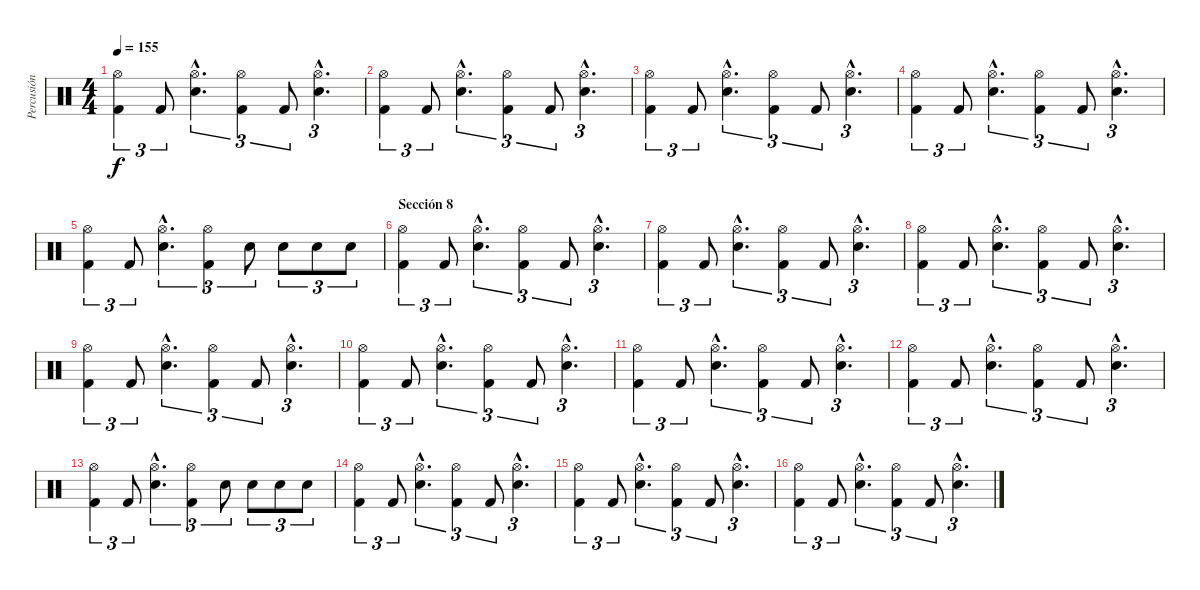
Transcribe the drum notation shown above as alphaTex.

\track ("Percusión" "Percusión") {instrument percussion}
\staff {score}
\articulation defaults
\ts (4 4)
\tempo 155
\clef neutral
\ks c
("Hi-Hat (open)" "Kick (hit) 2").4{tu (3 2) dy f} "Kick (hit) 2".8{tu (3 2)} ("Hi-Hat (open)"{hac} "Electric Snare (hit)"{hac}).4{d tu (3 2)} ("Hi-Hat (open)" "Kick (hit) 2").4{tu (3 2)} "Kick (hit) 2".8{tu (3 2)} ("Hi-Hat (open)"{hac} "Electric Snare (hit)"{hac}).4{d tu (3 2)} |
("Hi-Hat (open)" "Kick (hit) 2").4{tu (3 2)} "Kick (hit) 2".8{tu (3 2)} ("Hi-Hat (open)"{hac} "Electric Snare (hit)"{hac}).4{d tu (3 2)} ("Hi-Hat (open)" "Kick (hit) 2").4{tu (3 2)} "Kick (hit) 2".8{tu (3 2)} ("Hi-Hat (open)"{hac} "Electric Snare (hit)"{hac}).4{d tu (3 2)} |
("Hi-Hat (open)" "Kick (hit) 2").4{tu (3 2)} "Kick (hit) 2".8{tu (3 2)} ("Hi-Hat (open)"{hac} "Electric Snare (hit)"{hac}).4{d tu (3 2)} ("Hi-Hat (open)" "Kick (hit) 2").4{tu (3 2)} "Kick (hit) 2".8{tu (3 2)} ("Hi-Hat (open)"{hac} "Electric Snare (hit)"{hac}).4{d tu (3 2)} |
("Hi-Hat (open)" "Kick (hit) 2").4{tu (3 2)} "Kick (hit) 2".8{tu (3 2)} ("Hi-Hat (open)"{hac} "Electric Snare (hit)"{hac}).4{d tu (3 2)} ("Hi-Hat (open)" "Kick (hit) 2").4{tu (3 2)} "Kick (hit) 2".8{tu (3 2)} ("Hi-Hat (open)"{hac} "Electric Snare (hit)"{hac}).4{d tu (3 2)} |
("Hi-Hat (open)" "Kick (hit) 2").4{tu (3 2)} "Kick (hit) 2".8{tu (3 2)} ("Hi-Hat (open)"{hac} "Electric Snare (hit)"{hac}).4{d tu (3 2)} ("Hi-Hat (open)" "Kick (hit) 2").4{tu (3 2)} "Electric Snare (hit)".8{tu (3 2)} "Electric Snare (hit)".8{tu (3 2)} "Electric Snare (hit)".8{tu (3 2)} "Electric Snare (hit)".8{tu (3 2)} |
\section ("" "Sección 8")
("Hi-Hat (open)" "Kick (hit) 2").4{tu (3 2)} "Kick (hit) 2".8{tu (3 2)} ("Hi-Hat (open)"{hac} "Electric Snare (hit)"{hac}).4{d tu (3 2)} ("Hi-Hat (open)" "Kick (hit) 2").4{tu (3 2)} "Kick (hit) 2".8{tu (3 2)} ("Hi-Hat (open)"{hac} "Electric Snare (hit)"{hac}).4{d tu (3 2)} |
("Hi-Hat (open)" "Kick (hit) 2").4{tu (3 2)} "Kick (hit) 2".8{tu (3 2)} ("Hi-Hat (open)"{hac} "Electric Snare (hit)"{hac}).4{d tu (3 2)} ("Hi-Hat (open)" "Kick (hit) 2").4{tu (3 2)} "Kick (hit) 2".8{tu (3 2)} ("Hi-Hat (open)"{hac} "Electric Snare (hit)"{hac}).4{d tu (3 2)} |
("Hi-Hat (open)" "Kick (hit) 2").4{tu (3 2)} "Kick (hit) 2".8{tu (3 2)} ("Hi-Hat (open)"{hac} "Electric Snare (hit)"{hac}).4{d tu (3 2)} ("Hi-Hat (open)" "Kick (hit) 2").4{tu (3 2)} "Kick (hit) 2".8{tu (3 2)} ("Hi-Hat (open)"{hac} "Electric Snare (hit)"{hac}).4{d tu (3 2)} |
("Hi-Hat (open)" "Kick (hit) 2").4{tu (3 2)} "Kick (hit) 2".8{tu (3 2)} ("Hi-Hat (open)"{hac} "Electric Snare (hit)"{hac}).4{d tu (3 2)} ("Hi-Hat (open)" "Kick (hit) 2").4{tu (3 2)} "Kick (hit) 2".8{tu (3 2)} ("Hi-Hat (open)"{hac} "Electric Snare (hit)"{hac}).4{d tu (3 2)} |
("Hi-Hat (open)" "Kick (hit) 2").4{tu (3 2)} "Kick (hit) 2".8{tu (3 2)} ("Hi-Hat (open)"{hac} "Electric Snare (hit)"{hac}).4{d tu (3 2)} ("Hi-Hat (open)" "Kick (hit) 2").4{tu (3 2)} "Kick (hit) 2".8{tu (3 2)} ("Hi-Hat (open)"{hac} "Electric Snare (hit)"{hac}).4{d tu (3 2)} |
("Hi-Hat (open)" "Kick (hit) 2").4{tu (3 2)} "Kick (hit) 2".8{tu (3 2)} ("Hi-Hat (open)"{hac} "Electric Snare (hit)"{hac}).4{d tu (3 2)} ("Hi-Hat (open)" "Kick (hit) 2").4{tu (3 2)} "Kick (hit) 2".8{tu (3 2)} ("Hi-Hat (open)"{hac} "Electric Snare (hit)"{hac}).4{d tu (3 2)} |
("Hi-Hat (open)" "Kick (hit) 2").4{tu (3 2)} "Kick (hit) 2".8{tu (3 2)} ("Hi-Hat (open)"{hac} "Electric Snare (hit)"{hac}).4{d tu (3 2)} ("Hi-Hat (open)" "Kick (hit) 2").4{tu (3 2)} "Kick (hit) 2".8{tu (3 2)} ("Hi-Hat (open)"{hac} "Electric Snare (hit)"{hac}).4{d tu (3 2)} |
("Hi-Hat (open)" "Kick (hit) 2").4{tu (3 2)} "Kick (hit) 2".8{tu (3 2)} ("Hi-Hat (open)"{hac} "Electric Snare (hit)"{hac}).4{d tu (3 2)} ("Hi-Hat (open)" "Kick (hit) 2").4{tu (3 2)} "Electric Snare (hit)".8{tu (3 2)} "Electric Snare (hit)".8{tu (3 2)} "Electric Snare (hit)".8{tu (3 2)} "Electric Snare (hit)".8{tu (3 2)} |
("Hi-Hat (open)" "Kick (hit) 2").4{tu (3 2)} "Kick (hit) 2".8{tu (3 2)} ("Hi-Hat (open)"{hac} "Electric Snare (hit)"{hac}).4{d tu (3 2)} ("Hi-Hat (open)" "Kick (hit) 2").4{tu (3 2)} "Kick (hit) 2".8{tu (3 2)} ("Hi-Hat (open)"{hac} "Electric Snare (hit)"{hac}).4{d tu (3 2)} |
("Hi-Hat (open)" "Kick (hit) 2").4{tu (3 2)} "Kick (hit) 2".8{tu (3 2)} ("Hi-Hat (open)"{hac} "Electric Snare (hit)"{hac}).4{d tu (3 2)} ("Hi-Hat (open)" "Kick (hit) 2").4{tu (3 2)} "Kick (hit) 2".8{tu (3 2)} ("Hi-Hat (open)"{hac} "Electric Snare (hit)"{hac}).4{d tu (3 2)} |
("Hi-Hat (open)" "Kick (hit) 2").4{tu (3 2)} "Kick (hit) 2".8{tu (3 2)} ("Hi-Hat (open)"{hac} "Electric Snare (hit)"{hac}).4{d tu (3 2)} ("Hi-Hat (open)" "Kick (hit) 2").4{tu (3 2)} "Kick (hit) 2".8{tu (3 2)} ("Hi-Hat (open)"{hac} "Electric Snare (hit)"{hac}).4{d tu (3 2)}
